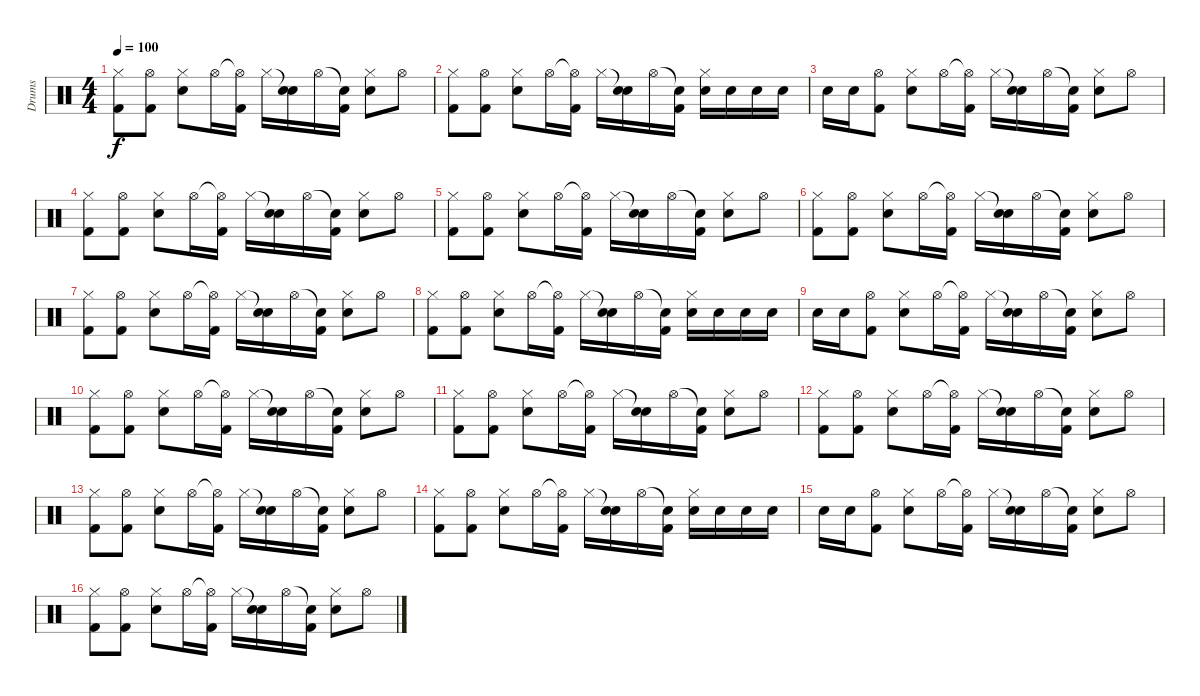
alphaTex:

\track ("Drums" "Drums") {instrument percussion}
\staff {score}
\articulation defaults
\ts (4 4)
\tempo 100
\clef neutral
\ks c
("Hi-Hat (closed)" "Kick (hit) 2").8{dy f} ("Hi-Hat (open)" "Kick (hit) 2").8 ("Hi-Hat (closed)" "Electric Snare (hit)").8 "Hi-Hat (open)".16 ("Hi-Hat (open)"{t} "Kick (hit) 2").16 "Hi-Hat (closed)".16 ("Snare (hit)"{t} "Electric Snare (hit)").16 "Hi-Hat (open)".16 ("Snare (hit)"{t} "Kick (hit) 2").16 ("Hi-Hat (closed)" "Electric Snare (hit)").8 "Hi-Hat (open)".8 |
("Hi-Hat (closed)" "Kick (hit) 2").8 ("Hi-Hat (open)" "Kick (hit) 2").8 ("Hi-Hat (closed)" "Electric Snare (hit)").8 "Hi-Hat (open)".16 ("Hi-Hat (open)"{t} "Kick (hit) 2").16 "Hi-Hat (closed)".16 ("Snare (hit)"{t} "Electric Snare (hit)").16 "Hi-Hat (open)".16 ("Snare (hit)"{t} "Kick (hit) 2").16 ("Hi-Hat (closed)" "Electric Snare (hit)").16 "Electric Snare (hit)".16 "Electric Snare (hit)".16 "Electric Snare (hit)".16 |
"Electric Snare (hit)".16 "Electric Snare (hit)".16 ("Hi-Hat (open)" "Kick (hit) 2").8 ("Hi-Hat (closed)" "Electric Snare (hit)").8 "Hi-Hat (open)".16 ("Hi-Hat (open)"{t} "Kick (hit) 2").16 "Hi-Hat (closed)".16 ("Snare (hit)"{t} "Electric Snare (hit)").16 "Hi-Hat (open)".16 ("Snare (hit)"{t} "Kick (hit) 2").16 ("Hi-Hat (closed)" "Electric Snare (hit)").8 "Hi-Hat (open)".8 |
("Hi-Hat (closed)" "Kick (hit) 2").8 ("Hi-Hat (open)" "Kick (hit) 2").8 ("Hi-Hat (closed)" "Electric Snare (hit)").8 "Hi-Hat (open)".16 ("Hi-Hat (open)"{t} "Kick (hit) 2").16 "Hi-Hat (closed)".16 ("Snare (hit)"{t} "Electric Snare (hit)").16 "Hi-Hat (open)".16 ("Snare (hit)"{t} "Kick (hit) 2").16 ("Hi-Hat (closed)" "Electric Snare (hit)").8 "Hi-Hat (open)".8 |
("Hi-Hat (closed)" "Kick (hit) 2").8 ("Hi-Hat (open)" "Kick (hit) 2").8 ("Hi-Hat (closed)" "Electric Snare (hit)").8 "Hi-Hat (open)".16 ("Hi-Hat (open)"{t} "Kick (hit) 2").16 "Hi-Hat (closed)".16 ("Snare (hit)"{t} "Electric Snare (hit)").16 "Hi-Hat (open)".16 ("Snare (hit)"{t} "Kick (hit) 2").16 ("Hi-Hat (closed)" "Electric Snare (hit)").8 "Hi-Hat (open)".8 |
("Hi-Hat (closed)" "Kick (hit) 2").8 ("Hi-Hat (open)" "Kick (hit) 2").8 ("Hi-Hat (closed)" "Electric Snare (hit)").8 "Hi-Hat (open)".16 ("Hi-Hat (open)"{t} "Kick (hit) 2").16 "Hi-Hat (closed)".16 ("Snare (hit)"{t} "Electric Snare (hit)").16 "Hi-Hat (open)".16 ("Snare (hit)"{t} "Kick (hit) 2").16 ("Hi-Hat (closed)" "Electric Snare (hit)").8 "Hi-Hat (open)".8 |
("Hi-Hat (closed)" "Kick (hit) 2").8 ("Hi-Hat (open)" "Kick (hit) 2").8 ("Hi-Hat (closed)" "Electric Snare (hit)").8 "Hi-Hat (open)".16 ("Hi-Hat (open)"{t} "Kick (hit) 2").16 "Hi-Hat (closed)".16 ("Snare (hit)"{t} "Electric Snare (hit)").16 "Hi-Hat (open)".16 ("Snare (hit)"{t} "Kick (hit) 2").16 ("Hi-Hat (closed)" "Electric Snare (hit)").8 "Hi-Hat (open)".8 |
("Hi-Hat (closed)" "Kick (hit) 2").8 ("Hi-Hat (open)" "Kick (hit) 2").8 ("Hi-Hat (closed)" "Electric Snare (hit)").8 "Hi-Hat (open)".16 ("Hi-Hat (open)"{t} "Kick (hit) 2").16 "Hi-Hat (closed)".16 ("Snare (hit)"{t} "Electric Snare (hit)").16 "Hi-Hat (open)".16 ("Snare (hit)"{t} "Kick (hit) 2").16 ("Hi-Hat (closed)" "Electric Snare (hit)").16 "Electric Snare (hit)".16 "Electric Snare (hit)".16 "Electric Snare (hit)".16 |
"Electric Snare (hit)".16 "Electric Snare (hit)".16 ("Hi-Hat (open)" "Kick (hit) 2").8 ("Hi-Hat (closed)" "Electric Snare (hit)").8 "Hi-Hat (open)".16 ("Hi-Hat (open)"{t} "Kick (hit) 2").16 "Hi-Hat (closed)".16 ("Snare (hit)"{t} "Electric Snare (hit)").16 "Hi-Hat (open)".16 ("Snare (hit)"{t} "Kick (hit) 2").16 ("Hi-Hat (closed)" "Electric Snare (hit)").8 "Hi-Hat (open)".8 |
("Hi-Hat (closed)" "Kick (hit) 2").8 ("Hi-Hat (open)" "Kick (hit) 2").8 ("Hi-Hat (closed)" "Electric Snare (hit)").8 "Hi-Hat (open)".16 ("Hi-Hat (open)"{t} "Kick (hit) 2").16 "Hi-Hat (closed)".16 ("Snare (hit)"{t} "Electric Snare (hit)").16 "Hi-Hat (open)".16 ("Snare (hit)"{t} "Kick (hit) 2").16 ("Hi-Hat (closed)" "Electric Snare (hit)").8 "Hi-Hat (open)".8 |
("Hi-Hat (closed)" "Kick (hit) 2").8 ("Hi-Hat (open)" "Kick (hit) 2").8 ("Hi-Hat (closed)" "Electric Snare (hit)").8 "Hi-Hat (open)".16 ("Hi-Hat (open)"{t} "Kick (hit) 2").16 "Hi-Hat (closed)".16 ("Snare (hit)"{t} "Electric Snare (hit)").16 "Hi-Hat (open)".16 ("Snare (hit)"{t} "Kick (hit) 2").16 ("Hi-Hat (closed)" "Electric Snare (hit)").8 "Hi-Hat (open)".8 |
("Hi-Hat (closed)" "Kick (hit) 2").8 ("Hi-Hat (open)" "Kick (hit) 2").8 ("Hi-Hat (closed)" "Electric Snare (hit)").8 "Hi-Hat (open)".16 ("Hi-Hat (open)"{t} "Kick (hit) 2").16 "Hi-Hat (closed)".16 ("Snare (hit)"{t} "Electric Snare (hit)").16 "Hi-Hat (open)".16 ("Snare (hit)"{t} "Kick (hit) 2").16 ("Hi-Hat (closed)" "Electric Snare (hit)").8 "Hi-Hat (open)".8 |
("Hi-Hat (closed)" "Kick (hit) 2").8 ("Hi-Hat (open)" "Kick (hit) 2").8 ("Hi-Hat (closed)" "Electric Snare (hit)").8 "Hi-Hat (open)".16 ("Hi-Hat (open)"{t} "Kick (hit) 2").16 "Hi-Hat (closed)".16 ("Snare (hit)"{t} "Electric Snare (hit)").16 "Hi-Hat (open)".16 ("Snare (hit)"{t} "Kick (hit) 2").16 ("Hi-Hat (closed)" "Electric Snare (hit)").8 "Hi-Hat (open)".8 |
("Hi-Hat (closed)" "Kick (hit) 2").8 ("Hi-Hat (open)" "Kick (hit) 2").8 ("Hi-Hat (closed)" "Electric Snare (hit)").8 "Hi-Hat (open)".16 ("Hi-Hat (open)"{t} "Kick (hit) 2").16 "Hi-Hat (closed)".16 ("Snare (hit)"{t} "Electric Snare (hit)").16 "Hi-Hat (open)".16 ("Snare (hit)"{t} "Kick (hit) 2").16 ("Hi-Hat (closed)" "Electric Snare (hit)").16 "Electric Snare (hit)".16 "Electric Snare (hit)".16 "Electric Snare (hit)".16 |
"Electric Snare (hit)".16 "Electric Snare (hit)".16 ("Hi-Hat (open)" "Kick (hit) 2").8 ("Hi-Hat (closed)" "Electric Snare (hit)").8 "Hi-Hat (open)".16 ("Hi-Hat (open)"{t} "Kick (hit) 2").16 "Hi-Hat (closed)".16 ("Snare (hit)"{t} "Electric Snare (hit)").16 "Hi-Hat (open)".16 ("Snare (hit)"{t} "Kick (hit) 2").16 ("Hi-Hat (closed)" "Electric Snare (hit)").8 "Hi-Hat (open)".8 |
("Hi-Hat (closed)" "Kick (hit) 2").8 ("Hi-Hat (open)" "Kick (hit) 2").8 ("Hi-Hat (closed)" "Electric Snare (hit)").8 "Hi-Hat (open)".16 ("Hi-Hat (open)"{t} "Kick (hit) 2").16 "Hi-Hat (closed)".16 ("Snare (hit)"{t} "Electric Snare (hit)").16 "Hi-Hat (open)".16 ("Snare (hit)"{t} "Kick (hit) 2").16 ("Hi-Hat (closed)" "Electric Snare (hit)").8 "Hi-Hat (open)".8
